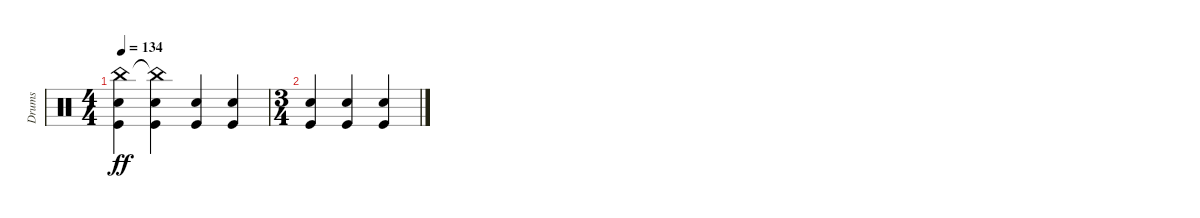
\track ("Drums" "Drums") {instrument percussion}
\staff {score}
\articulation defaults
\ts (4 4)
\tempo 134
\clef neutral
\ks c
("China (hit)" "Snare (hit) 2" "Kick (hit)").4{dy ff} ("China (hit)"{t} "Snare (hit) 2" "Kick (hit)").4 ("Snare (hit) 2" "Kick (hit)").4 ("Snare (hit) 2" "Kick (hit)").4 |
\ts (3 4)
("Snare (hit) 2" "Kick (hit)").4 ("Snare (hit) 2" "Kick (hit)").4 ("Snare (hit) 2" "Kick (hit)").4
